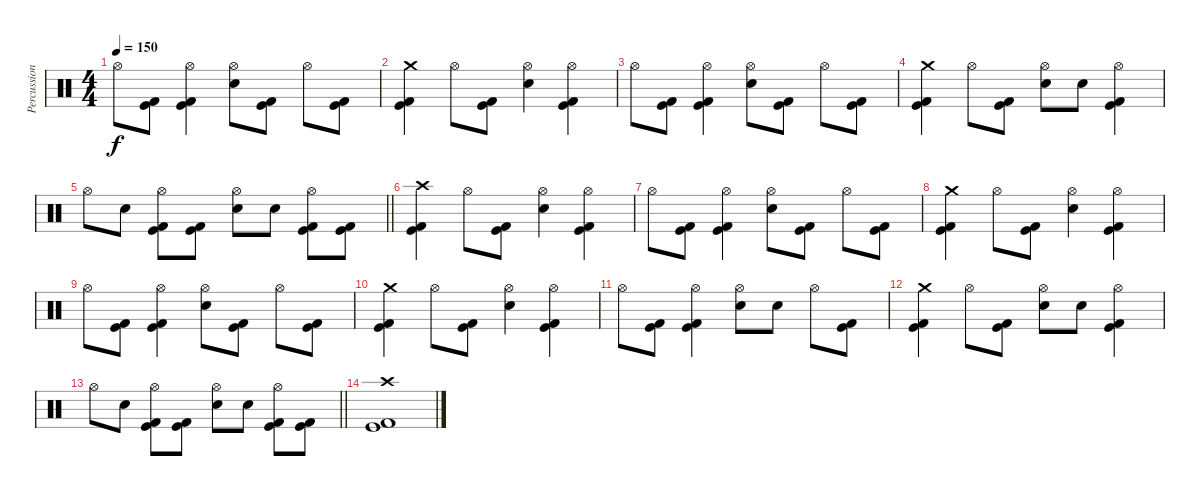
\track ("Percussion" "Percussion") {instrument percussion}
\staff {score}
\articulation defaults
\ts (4 4)
\tempo 150
\clef neutral
\ks c "Hi-Hat (open)".8{dy f}
("Kick (hit)" "Kick (hit) 2").8 ("Hi-Hat (open)" "Kick (hit)" "Kick (hit) 2").4 ("Hi-Hat (open)" "Electric Snare (hit)").8 ("Kick (hit)" "Kick (hit) 2").8 "Hi-Hat (open)".8 ("Kick (hit)" "Kick (hit) 2").8 |
("Crash medium (hit)" "Kick (hit)" "Kick (hit) 2").4 "Hi-Hat (open)".8 ("Kick (hit)" "Kick (hit) 2").8 ("Hi-Hat (open)" "Electric Snare (hit)").4 ("Hi-Hat (open)" "Kick (hit)" "Kick (hit) 2").4 |
"Hi-Hat (open)".8 ("Kick (hit)" "Kick (hit) 2").8 ("Hi-Hat (open)" "Kick (hit)" "Kick (hit) 2").4 ("Hi-Hat (open)" "Electric Snare (hit)").8 ("Kick (hit)" "Kick (hit) 2").8 "Hi-Hat (open)".8 ("Kick (hit)" "Kick (hit) 2").8 |
("Crash medium (hit)" "Kick (hit)" "Kick (hit) 2").4 "Hi-Hat (open)".8 ("Kick (hit)" "Kick (hit) 2").8 ("Hi-Hat (open)" "Electric Snare (hit)").8 "Electric Snare (hit)".8 ("Hi-Hat (open)" "Kick (hit)" "Kick (hit) 2").4 |
\barLineRight lightlight "Hi-Hat (open)".8 "Electric Snare (hit)".8
("Hi-Hat (open)" "Kick (hit)" "Kick (hit) 2").8 ("Kick (hit)" "Kick (hit) 2").8 ("Hi-Hat (open)" "Electric Snare (hit)").8 "Electric Snare (hit)".8 ("Hi-Hat (open)" "Kick (hit)" "Kick (hit) 2").8 ("Kick (hit)" "Kick (hit) 2").8 |
\section ("" "")
("Crash high (hit)" "Kick (hit)" "Kick (hit) 2").4 "Hi-Hat (open)".8 ("Kick (hit)" "Kick (hit) 2").8 ("Hi-Hat (open)" "Electric Snare (hit)").4 ("Hi-Hat (open)" "Kick (hit)" "Kick (hit) 2").4 |
"Hi-Hat (open)".8 ("Kick (hit)" "Kick (hit) 2").8 ("Hi-Hat (open)" "Kick (hit)" "Kick (hit) 2").4 ("Hi-Hat (open)" "Electric Snare (hit)").8 ("Kick (hit)" "Kick (hit) 2").8 "Hi-Hat (open)".8 ("Kick (hit)" "Kick (hit) 2").8 |
("Crash medium (hit)" "Kick (hit)" "Kick (hit) 2").4 "Hi-Hat (open)".8 ("Kick (hit)" "Kick (hit) 2").8 ("Hi-Hat (open)" "Electric Snare (hit)").4 ("Hi-Hat (open)" "Kick (hit)" "Kick (hit) 2").4 |
"Hi-Hat (open)".8 ("Kick (hit)" "Kick (hit) 2").8 ("Hi-Hat (open)" "Kick (hit)" "Kick (hit) 2").4 ("Hi-Hat (open)" "Electric Snare (hit)").8 ("Kick (hit)" "Kick (hit) 2").8 "Hi-Hat (open)".8 ("Kick (hit)" "Kick (hit) 2").8 |
("Crash medium (hit)" "Kick (hit)" "Kick (hit) 2").4 "Hi-Hat (open)".8 ("Kick (hit)" "Kick (hit) 2").8 ("Hi-Hat (open)" "Electric Snare (hit)").4 ("Hi-Hat (open)" "Kick (hit)" "Kick (hit) 2").4 |
"Hi-Hat (open)".8 ("Kick (hit)" "Kick (hit) 2").8 ("Hi-Hat (open)" "Kick (hit)" "Kick (hit) 2").4 ("Hi-Hat (open)" "Electric Snare (hit)").8 "Electric Snare (hit)".8 "Hi-Hat (open)".8 ("Kick (hit)" "Kick (hit) 2").8 |
("Crash medium (hit)" "Kick (hit)" "Kick (hit) 2").4 "Hi-Hat (open)".8 ("Kick (hit)" "Kick (hit) 2").8 ("Hi-Hat (open)" "Electric Snare (hit)").8 "Electric Snare (hit)".8 ("Hi-Hat (open)" "Kick (hit)" "Kick (hit) 2").4 |
\barLineRight lightlight "Hi-Hat (open)".8 "Electric Snare (hit)".8
("Hi-Hat (open)" "Kick (hit)" "Kick (hit) 2").8 ("Kick (hit)" "Kick (hit) 2").8 ("Hi-Hat (open)" "Electric Snare (hit)").8 "Electric Snare (hit)".8 ("Hi-Hat (open)" "Kick (hit)" "Kick (hit) 2").8 ("Kick (hit)" "Kick (hit) 2").8 |
("Crash high (hit)" "Kick (hit)" "Kick (hit) 2").1
